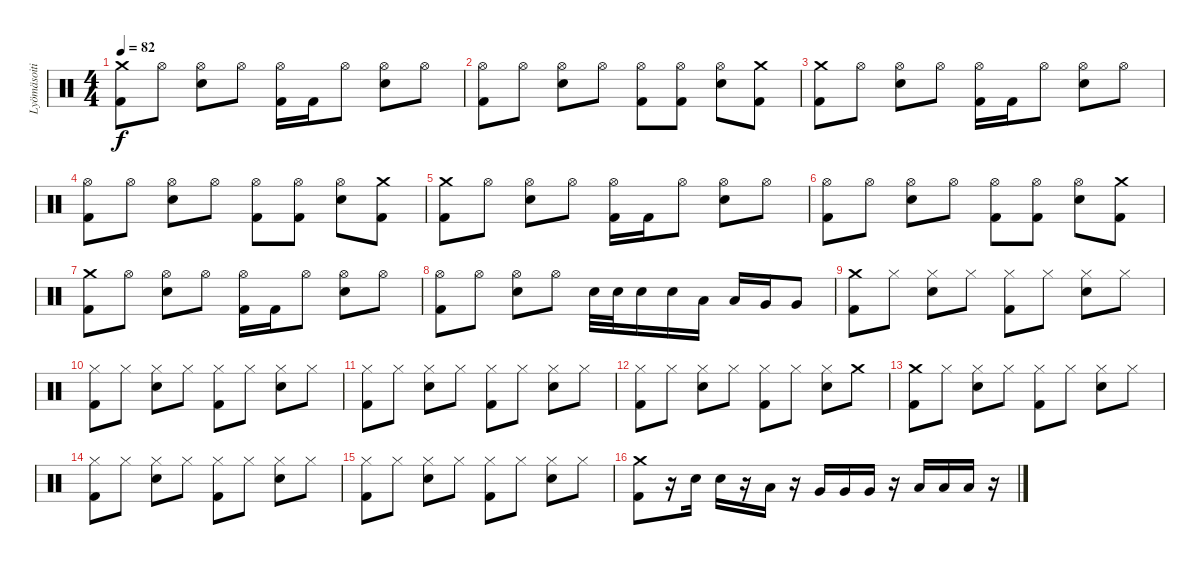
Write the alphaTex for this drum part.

\track ("Lyömäsoitin" "Lyömäsoiti") {instrument percussion}
\staff {score}
\articulation defaults
\ts (4 4)
\tempo 82
\clef neutral
\ks c
("Crash medium (hit)" "Kick (hit) 2").8{dy f} "Hi-Hat (open)".8 ("Hi-Hat (open)" "Electric Snare (hit)").8 "Hi-Hat (open)".8 ("Hi-Hat (open)" "Kick (hit) 2").16 "Kick (hit) 2".16 "Hi-Hat (open)".8 ("Hi-Hat (open)" "Electric Snare (hit)").8 "Hi-Hat (open)".8 |
("Hi-Hat (open)" "Kick (hit) 2").8 "Hi-Hat (open)".8 ("Hi-Hat (open)" "Electric Snare (hit)").8 "Hi-Hat (open)".8 ("Hi-Hat (open)" "Kick (hit) 2").8 ("Hi-Hat (open)" "Kick (hit) 2").8 ("Hi-Hat (open)" "Electric Snare (hit)").8 ("Crash medium (hit)" "Kick (hit) 2").8 |
("Crash medium (hit)" "Kick (hit) 2").8 "Hi-Hat (open)".8 ("Hi-Hat (open)" "Electric Snare (hit)").8 "Hi-Hat (open)".8 ("Hi-Hat (open)" "Kick (hit) 2").16 "Kick (hit) 2".16 "Hi-Hat (open)".8 ("Hi-Hat (open)" "Electric Snare (hit)").8 "Hi-Hat (open)".8 |
("Hi-Hat (open)" "Kick (hit) 2").8 "Hi-Hat (open)".8 ("Hi-Hat (open)" "Electric Snare (hit)").8 "Hi-Hat (open)".8 ("Hi-Hat (open)" "Kick (hit) 2").8 ("Hi-Hat (open)" "Kick (hit) 2").8 ("Hi-Hat (open)" "Electric Snare (hit)").8 ("Crash medium (hit)" "Kick (hit) 2").8 |
("Crash medium (hit)" "Kick (hit) 2").8 "Hi-Hat (open)".8 ("Hi-Hat (open)" "Electric Snare (hit)").8 "Hi-Hat (open)".8 ("Hi-Hat (open)" "Kick (hit) 2").16 "Kick (hit) 2".16 "Hi-Hat (open)".8 ("Hi-Hat (open)" "Electric Snare (hit)").8 "Hi-Hat (open)".8 |
("Hi-Hat (open)" "Kick (hit) 2").8 "Hi-Hat (open)".8 ("Hi-Hat (open)" "Electric Snare (hit)").8 "Hi-Hat (open)".8 ("Hi-Hat (open)" "Kick (hit) 2").8 ("Hi-Hat (open)" "Kick (hit) 2").8 ("Hi-Hat (open)" "Electric Snare (hit)").8 ("Crash medium (hit)" "Kick (hit) 2").8 |
("Crash medium (hit)" "Kick (hit) 2").8 "Hi-Hat (open)".8 ("Hi-Hat (open)" "Electric Snare (hit)").8 "Hi-Hat (open)".8 ("Hi-Hat (open)" "Kick (hit) 2").16 "Kick (hit) 2".16 "Hi-Hat (open)".8 ("Hi-Hat (open)" "Electric Snare (hit)").8 "Hi-Hat (open)".8 |
("Hi-Hat (open)" "Kick (hit) 2").8 "Hi-Hat (open)".8 ("Hi-Hat (open)" "Electric Snare (hit)").8 "Hi-Hat (open)".8 "Electric Snare (hit)".32 "Electric Snare (hit)".32 "Electric Snare (hit)".16 "Electric Snare (hit)".16 "Low Tom (hit)".16 "Low Tom (hit)".16 "Very Low Tom (hit)".16 "Very Low Tom (hit)".8 |
("Crash medium (hit)" "Kick (hit) 2").8 "Hi-Hat (closed)".8 ("Hi-Hat (closed)" "Electric Snare (hit)").8 "Hi-Hat (closed)".8 ("Hi-Hat (closed)" "Kick (hit) 2").8 "Hi-Hat (closed)".8 ("Hi-Hat (closed)" "Electric Snare (hit)").8 "Hi-Hat (closed)".8 |
("Hi-Hat (closed)" "Kick (hit) 2").8 "Hi-Hat (closed)".8 ("Hi-Hat (closed)" "Electric Snare (hit)").8 "Hi-Hat (closed)".8 ("Hi-Hat (closed)" "Kick (hit) 2").8 "Hi-Hat (closed)".8 ("Hi-Hat (closed)" "Electric Snare (hit)").8 "Hi-Hat (closed)".8 |
("Hi-Hat (closed)" "Kick (hit) 2").8 "Hi-Hat (closed)".8 ("Hi-Hat (closed)" "Electric Snare (hit)").8 "Hi-Hat (closed)".8 ("Hi-Hat (closed)" "Kick (hit) 2").8 "Hi-Hat (closed)".8 ("Hi-Hat (closed)" "Electric Snare (hit)").8 "Hi-Hat (closed)".8 |
("Hi-Hat (closed)" "Kick (hit) 2").8 "Hi-Hat (closed)".8 ("Hi-Hat (closed)" "Electric Snare (hit)").8 "Hi-Hat (closed)".8 ("Hi-Hat (closed)" "Kick (hit) 2").8 "Hi-Hat (closed)".8 ("Hi-Hat (closed)" "Electric Snare (hit)").8 "Crash medium (hit)".8 |
("Crash medium (hit)" "Kick (hit) 2").8 "Hi-Hat (closed)".8 ("Hi-Hat (closed)" "Electric Snare (hit)").8 "Hi-Hat (closed)".8 ("Hi-Hat (closed)" "Kick (hit) 2").8 "Hi-Hat (closed)".8 ("Hi-Hat (closed)" "Electric Snare (hit)").8 "Hi-Hat (closed)".8 |
("Hi-Hat (closed)" "Kick (hit) 2").8 "Hi-Hat (closed)".8 ("Hi-Hat (closed)" "Electric Snare (hit)").8 "Hi-Hat (closed)".8 ("Hi-Hat (closed)" "Kick (hit) 2").8 "Hi-Hat (closed)".8 ("Hi-Hat (closed)" "Electric Snare (hit)").8 "Hi-Hat (closed)".8 |
("Hi-Hat (closed)" "Kick (hit) 2").8 "Hi-Hat (closed)".8 ("Hi-Hat (closed)" "Electric Snare (hit)").8 "Hi-Hat (closed)".8 ("Hi-Hat (closed)" "Kick (hit) 2").8 "Hi-Hat (closed)".8 ("Hi-Hat (closed)" "Electric Snare (hit)").8 "Hi-Hat (closed)".8 |
("Crash medium (hit)" "Kick (hit) 2").8 r.16 "Electric Snare (hit)".16 "Electric Snare (hit)".16 r.16 "Low Tom (hit)".16 r.16 "Very Low Tom (hit)".16 "Very Low Tom (hit)".16 "Very Low Tom (hit)".16 r.16 "Low Floor Tom (hit)".16 "Low Floor Tom (hit)".16 "Low Floor Tom (hit)".16 r.16
